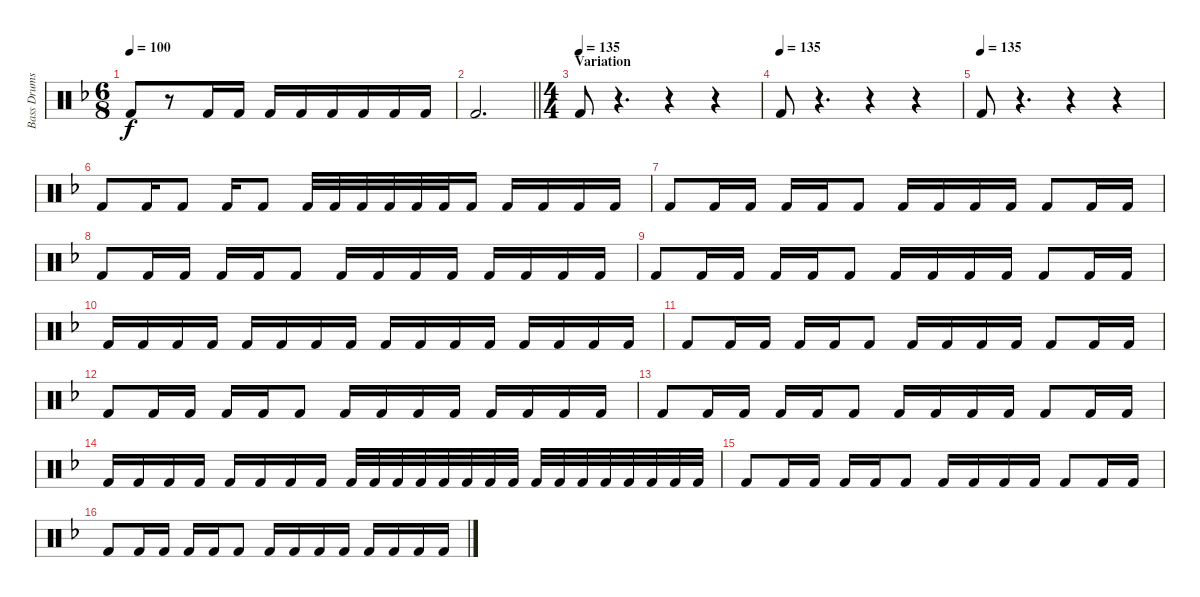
\track ("Bass Drums" "Bass Drums") {instrument percussion}
\staff {score}
\articulation defaults
\ts (6 8)
\tempo 100
\clef neutral
\ks dminor "Kick (hit) 2".8{dy f}
r.8 "Kick (hit) 2".16 "Kick (hit) 2".16 "Kick (hit) 2".16 "Kick (hit) 2".16 "Kick (hit) 2".16 "Kick (hit) 2".16 "Kick (hit) 2".16 "Kick (hit) 2".16 |
\barLineRight lightlight "Kick (hit) 2".2{d}
|
\ts (4 4)
\section ("" "Variation")
\tempo 140
\tempo (135)
"Kick (hit) 2".8 r.4{d} r.4 r.4 |
\tempo (135)
"Kick (hit) 2".8 r.4{d} r.4 r.4 |
\tempo (135)
"Kick (hit) 2".8 r.4{d} r.4 r.4 |
"Kick (hit) 2".8 "Kick (hit) 2".16 "Kick (hit) 2".8 "Kick (hit) 2".16 "Kick (hit) 2".8 "Kick (hit) 2".32 "Kick (hit) 2".32 "Kick (hit) 2".32 "Kick (hit) 2".32 "Kick (hit) 2".32 "Kick (hit) 2".32 "Kick (hit) 2".16 "Kick (hit) 2".16 "Kick (hit) 2".16 "Kick (hit) 2".16 "Kick (hit) 2".16 |
"Kick (hit) 2".8 "Kick (hit) 2".16 "Kick (hit) 2".16 "Kick (hit) 2".16 "Kick (hit) 2".16 "Kick (hit) 2".8 "Kick (hit) 2".16 "Kick (hit) 2".16 "Kick (hit) 2".16 "Kick (hit) 2".16 "Kick (hit) 2".8 "Kick (hit) 2".16 "Kick (hit) 2".16 |
"Kick (hit) 2".8 "Kick (hit) 2".16 "Kick (hit) 2".16 "Kick (hit) 2".16 "Kick (hit) 2".16 "Kick (hit) 2".8 "Kick (hit) 2".16 "Kick (hit) 2".16 "Kick (hit) 2".16 "Kick (hit) 2".16 "Kick (hit) 2".16 "Kick (hit) 2".16 "Kick (hit) 2".16 "Kick (hit) 2".16 |
"Kick (hit) 2".8 "Kick (hit) 2".16 "Kick (hit) 2".16 "Kick (hit) 2".16 "Kick (hit) 2".16 "Kick (hit) 2".8 "Kick (hit) 2".16 "Kick (hit) 2".16 "Kick (hit) 2".16 "Kick (hit) 2".16 "Kick (hit) 2".8 "Kick (hit) 2".16 "Kick (hit) 2".16 |
"Kick (hit) 2".16 "Kick (hit) 2".16 "Kick (hit) 2".16 "Kick (hit) 2".16 "Kick (hit) 2".16 "Kick (hit) 2".16 "Kick (hit) 2".16 "Kick (hit) 2".16 "Kick (hit) 2".16 "Kick (hit) 2".16 "Kick (hit) 2".16 "Kick (hit) 2".16 "Kick (hit) 2".16 "Kick (hit) 2".16 "Kick (hit) 2".16 "Kick (hit) 2".16 |
"Kick (hit) 2".8 "Kick (hit) 2".16 "Kick (hit) 2".16 "Kick (hit) 2".16 "Kick (hit) 2".16 "Kick (hit) 2".8 "Kick (hit) 2".16 "Kick (hit) 2".16 "Kick (hit) 2".16 "Kick (hit) 2".16 "Kick (hit) 2".8 "Kick (hit) 2".16 "Kick (hit) 2".16 |
"Kick (hit) 2".8 "Kick (hit) 2".16 "Kick (hit) 2".16 "Kick (hit) 2".16 "Kick (hit) 2".16 "Kick (hit) 2".8 "Kick (hit) 2".16 "Kick (hit) 2".16 "Kick (hit) 2".16 "Kick (hit) 2".16 "Kick (hit) 2".16 "Kick (hit) 2".16 "Kick (hit) 2".16 "Kick (hit) 2".16 |
"Kick (hit) 2".8 "Kick (hit) 2".16 "Kick (hit) 2".16 "Kick (hit) 2".16 "Kick (hit) 2".16 "Kick (hit) 2".8 "Kick (hit) 2".16 "Kick (hit) 2".16 "Kick (hit) 2".16 "Kick (hit) 2".16 "Kick (hit) 2".8 "Kick (hit) 2".16 "Kick (hit) 2".16 |
"Kick (hit) 2".16 "Kick (hit) 2".16 "Kick (hit) 2".16 "Kick (hit) 2".16 "Kick (hit) 2".16 "Kick (hit) 2".16 "Kick (hit) 2".16 "Kick (hit) 2".16 "Kick (hit) 2".32 "Kick (hit) 2".32 "Kick (hit) 2".32 "Kick (hit) 2".32 "Kick (hit) 2".32 "Kick (hit) 2".32 "Kick (hit) 2".32 "Kick (hit) 2".32 "Kick (hit) 2".32 "Kick (hit) 2".32 "Kick (hit) 2".32 "Kick (hit) 2".32 "Kick (hit) 2".32 "Kick (hit) 2".32 "Kick (hit) 2".32 "Kick (hit) 2".32 |
"Kick (hit) 2".8 "Kick (hit) 2".16 "Kick (hit) 2".16 "Kick (hit) 2".16 "Kick (hit) 2".16 "Kick (hit) 2".8 "Kick (hit) 2".16 "Kick (hit) 2".16 "Kick (hit) 2".16 "Kick (hit) 2".16 "Kick (hit) 2".8 "Kick (hit) 2".16 "Kick (hit) 2".16 |
"Kick (hit) 2".8 "Kick (hit) 2".16 "Kick (hit) 2".16 "Kick (hit) 2".16 "Kick (hit) 2".16 "Kick (hit) 2".8 "Kick (hit) 2".16 "Kick (hit) 2".16 "Kick (hit) 2".16 "Kick (hit) 2".16 "Kick (hit) 2".16 "Kick (hit) 2".16 "Kick (hit) 2".16 "Kick (hit) 2".16
